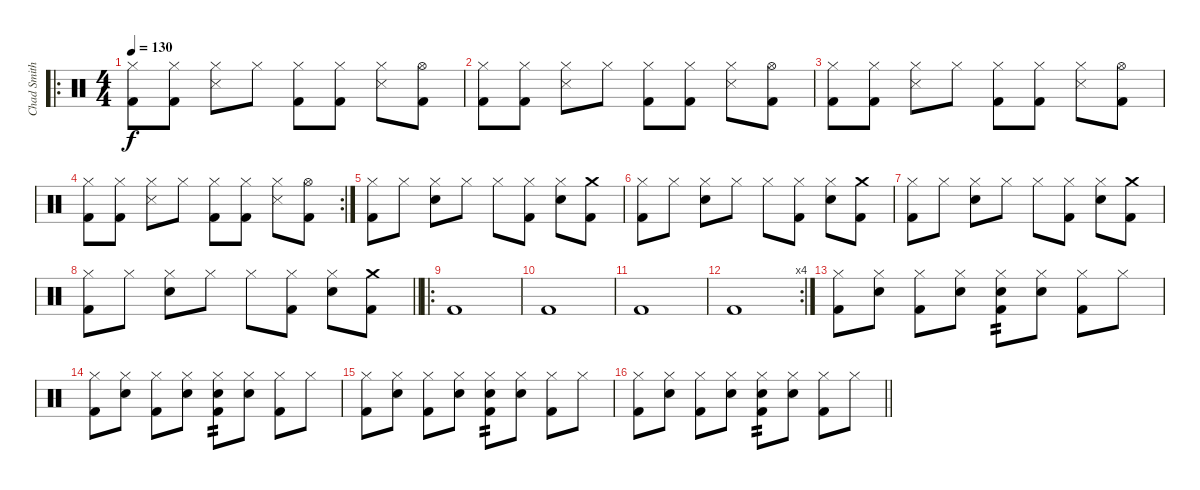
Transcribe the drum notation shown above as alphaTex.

\track ("Chad Smith" "Chad Smith") {instrument percussion}
\staff {score}
\articulation defaults
\ro
\ts (4 4)
\tempo 130
\clef neutral
\ks c
("Hi-Hat (closed)" "Kick (hit) 2").8{dy f} ("Hi-Hat (closed)" "Kick (hit) 2").8 ("Hi-Hat (closed)" "Snare (side stick) 3").8 "Hi-Hat (closed)".8 ("Hi-Hat (closed)" "Kick (hit) 2").8 ("Hi-Hat (closed)" "Kick (hit) 2").8 ("Hi-Hat (closed)" "Snare (side stick) 3").8 ("Hi-Hat (open)" "Kick (hit) 2").8 |
("Hi-Hat (closed)" "Kick (hit) 2").8 ("Hi-Hat (closed)" "Kick (hit) 2").8 ("Hi-Hat (closed)" "Snare (side stick) 3").8 "Hi-Hat (closed)".8 ("Hi-Hat (closed)" "Kick (hit) 2").8 ("Hi-Hat (closed)" "Kick (hit) 2").8 ("Hi-Hat (closed)" "Snare (side stick) 3").8 ("Hi-Hat (open)" "Kick (hit) 2").8 |
("Hi-Hat (closed)" "Kick (hit) 2").8 ("Hi-Hat (closed)" "Kick (hit) 2").8 ("Hi-Hat (closed)" "Snare (side stick) 3").8 "Hi-Hat (closed)".8 ("Hi-Hat (closed)" "Kick (hit) 2").8 ("Hi-Hat (closed)" "Kick (hit) 2").8 ("Hi-Hat (closed)" "Snare (side stick) 3").8 ("Hi-Hat (open)" "Kick (hit) 2").8 |
\rc 2
("Hi-Hat (closed)" "Kick (hit) 2").8 ("Hi-Hat (closed)" "Kick (hit) 2").8 ("Hi-Hat (closed)" "Snare (side stick) 3").8 "Hi-Hat (closed)".8 ("Hi-Hat (closed)" "Kick (hit) 2").8 ("Hi-Hat (closed)" "Kick (hit) 2").8 ("Hi-Hat (closed)" "Snare (side stick) 3").8 ("Hi-Hat (open)" "Kick (hit) 2").8 |
("Hi-Hat (closed)" "Kick (hit) 2").8 "Hi-Hat (closed)".8 ("Hi-Hat (closed)" "Electric Snare (hit)").8 "Hi-Hat (closed)".8 "Hi-Hat (closed)".8 ("Hi-Hat (closed)" "Kick (hit) 2").8 ("Hi-Hat (closed)" "Electric Snare (hit)").8 ("Crash medium (hit)" "Kick (hit) 2").8 |
("Hi-Hat (closed)" "Kick (hit) 2").8 "Hi-Hat (closed)".8 ("Hi-Hat (closed)" "Electric Snare (hit)").8 "Hi-Hat (closed)".8 "Hi-Hat (closed)".8 ("Hi-Hat (closed)" "Kick (hit) 2").8 ("Hi-Hat (closed)" "Electric Snare (hit)").8 ("Crash medium (hit)" "Kick (hit) 2").8 |
("Hi-Hat (closed)" "Kick (hit) 2").8 "Hi-Hat (closed)".8 ("Hi-Hat (closed)" "Electric Snare (hit)").8 "Hi-Hat (closed)".8 "Hi-Hat (closed)".8 ("Hi-Hat (closed)" "Kick (hit) 2").8 ("Hi-Hat (closed)" "Electric Snare (hit)").8 ("Crash medium (hit)" "Kick (hit) 2").8 |
\barLineRight lightlight
("Hi-Hat (closed)" "Kick (hit) 2").8 "Hi-Hat (closed)".8 ("Hi-Hat (closed)" "Electric Snare (hit)").8 "Hi-Hat (closed)".8 "Hi-Hat (closed)".8 ("Hi-Hat (closed)" "Kick (hit) 2").8 ("Hi-Hat (closed)" "Electric Snare (hit)").8 ("Crash medium (hit)" "Kick (hit) 2").8 |
\ro "Kick (hit) 2".1
|
"Kick (hit) 2".1 |
"Kick (hit) 2".1 |
\rc 4 "Kick (hit) 2".1
|
("Hi-Hat (closed)" "Kick (hit) 2").8 ("Hi-Hat (closed)" "Electric Snare (hit)").8 ("Hi-Hat (closed)" "Kick (hit) 2").8 ("Hi-Hat (closed)" "Electric Snare (hit)").8 ("Hi-Hat (closed)" "Electric Snare (hit)" "Kick (hit) 2").8{tp 2} ("Hi-Hat (closed)" "Electric Snare (hit)").8 ("Hi-Hat (closed)" "Kick (hit) 2").8 "Hi-Hat (closed)".8 |
("Hi-Hat (closed)" "Kick (hit) 2").8 ("Hi-Hat (closed)" "Electric Snare (hit)").8 ("Hi-Hat (closed)" "Kick (hit) 2").8 ("Hi-Hat (closed)" "Electric Snare (hit)").8 ("Hi-Hat (closed)" "Electric Snare (hit)" "Kick (hit) 2").8{tp 2} ("Hi-Hat (closed)" "Electric Snare (hit)").8 ("Hi-Hat (closed)" "Kick (hit) 2").8 "Hi-Hat (closed)".8 |
("Hi-Hat (closed)" "Kick (hit) 2").8 ("Hi-Hat (closed)" "Electric Snare (hit)").8 ("Hi-Hat (closed)" "Kick (hit) 2").8 ("Hi-Hat (closed)" "Electric Snare (hit)").8 ("Hi-Hat (closed)" "Electric Snare (hit)" "Kick (hit) 2").8{tp 2} ("Hi-Hat (closed)" "Electric Snare (hit)").8 ("Hi-Hat (closed)" "Kick (hit) 2").8 "Hi-Hat (closed)".8 |
\barLineRight lightlight
("Hi-Hat (closed)" "Kick (hit) 2").8 ("Hi-Hat (closed)" "Electric Snare (hit)").8 ("Hi-Hat (closed)" "Kick (hit) 2").8 ("Hi-Hat (closed)" "Electric Snare (hit)").8 ("Hi-Hat (closed)" "Electric Snare (hit)" "Kick (hit) 2").8{tp 2} ("Hi-Hat (closed)" "Electric Snare (hit)").8 ("Hi-Hat (closed)" "Kick (hit) 2").8 "Hi-Hat (closed)".8
